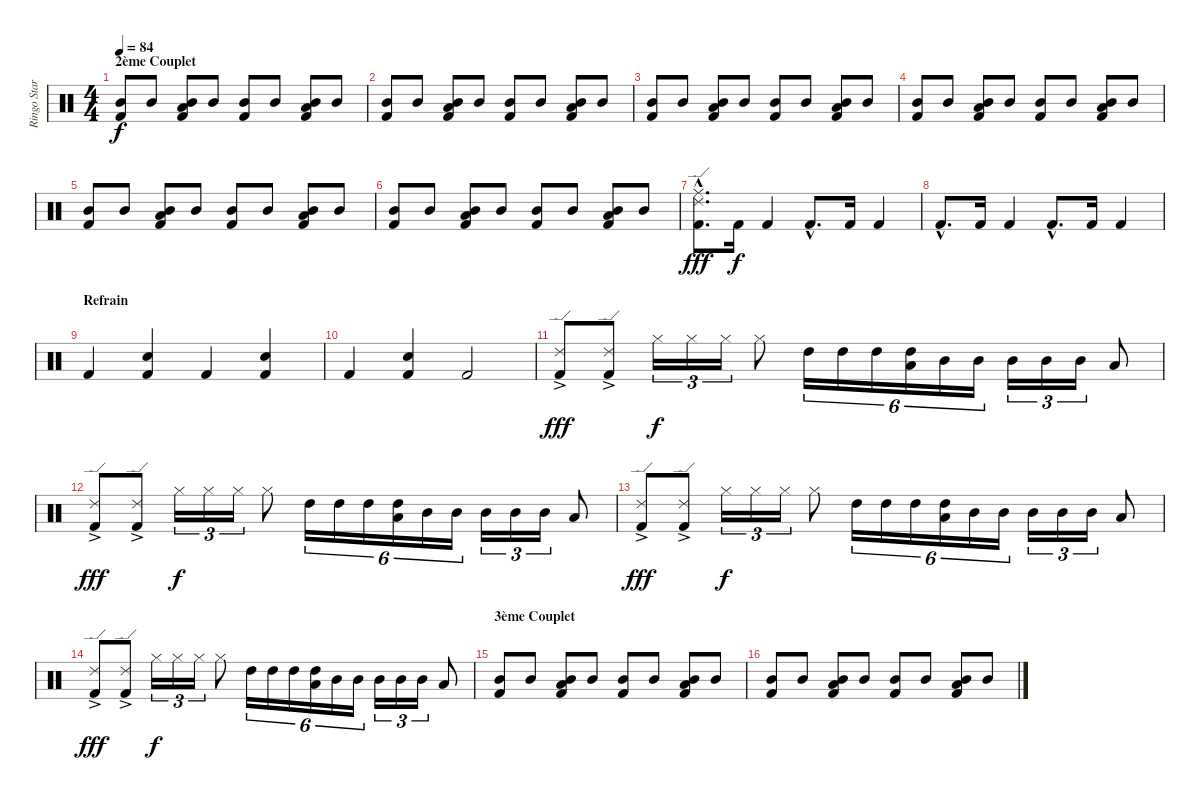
\track ("Ringo Starr (Batterie)" "Ringo Star") {instrument percussion}
\staff {score}
\articulation defaults
\ts (4 4)
\section ("" "2ème Couplet")
\tempo 84
\clef neutral
\ks c
("Mid Tom (hit)" "Kick (hit) 2").8{dy f} "Mid Tom (hit)".8 ("Mid Tom (hit)" "Low Tom (hit)" "Kick (hit) 2").8 "Mid Tom (hit)".8 ("Mid Tom (hit)" "Kick (hit) 2").8 "Mid Tom (hit)".8 ("Mid Tom (hit)" "Low Tom (hit)" "Kick (hit) 2").8 "Mid Tom (hit)".8 |
("Mid Tom (hit)" "Kick (hit) 2").8 "Mid Tom (hit)".8 ("Mid Tom (hit)" "Low Tom (hit)" "Kick (hit) 2").8 "Mid Tom (hit)".8 ("Mid Tom (hit)" "Kick (hit) 2").8 "Mid Tom (hit)".8 ("Mid Tom (hit)" "Low Tom (hit)" "Kick (hit) 2").8 "Mid Tom (hit)".8 |
("Mid Tom (hit)" "Kick (hit) 2").8 "Mid Tom (hit)".8 ("Mid Tom (hit)" "Low Tom (hit)" "Kick (hit) 2").8 "Mid Tom (hit)".8 ("Mid Tom (hit)" "Kick (hit) 2").8 "Mid Tom (hit)".8 ("Mid Tom (hit)" "Low Tom (hit)" "Kick (hit) 2").8 "Mid Tom (hit)".8 |
("Mid Tom (hit)" "Kick (hit) 2").8 "Mid Tom (hit)".8 ("Mid Tom (hit)" "Low Tom (hit)" "Kick (hit) 2").8 "Mid Tom (hit)".8 ("Mid Tom (hit)" "Kick (hit) 2").8 "Mid Tom (hit)".8 ("Mid Tom (hit)" "Low Tom (hit)" "Kick (hit) 2").8 "Mid Tom (hit)".8 |
("Mid Tom (hit)" "Kick (hit) 2").8 "Mid Tom (hit)".8 ("Mid Tom (hit)" "Low Tom (hit)" "Kick (hit) 2").8 "Mid Tom (hit)".8 ("Mid Tom (hit)" "Kick (hit) 2").8 "Mid Tom (hit)".8 ("Mid Tom (hit)" "Low Tom (hit)" "Kick (hit) 2").8 "Mid Tom (hit)".8 |
("Mid Tom (hit)" "Kick (hit) 2").8 "Mid Tom (hit)".8 ("Mid Tom (hit)" "Low Tom (hit)" "Kick (hit) 2").8 "Mid Tom (hit)".8 ("Mid Tom (hit)" "Kick (hit) 2").8 "Mid Tom (hit)".8 ("Mid Tom (hit)" "Low Tom (hit)" "Kick (hit) 2").8 "Mid Tom (hit)".8 |
("Ride (edge) 2"{hac} "Ride (middle)"{hac} "Kick (hit) 2"{hac}).8{d dy fff} "Kick (hit) 2".16{dy f} "Kick (hit) 2".4 "Kick (hit) 2"{hac}.8{d} "Kick (hit) 2".16 "Kick (hit) 2".4 |
"Kick (hit) 2"{hac}.8{d} "Kick (hit) 2".16 "Kick (hit) 2".4 "Kick (hit) 2"{hac}.8{d} "Kick (hit) 2".16 "Kick (hit) 2".4 |
\section ("" "Refrain")
"Kick (hit) 2".4 ("Snare (hit) 2" "Kick (hit) 2").4 "Kick (hit) 2".4 ("Snare (hit) 2" "Kick (hit) 2").4 |
"Kick (hit) 2".4 ("Snare (hit) 2" "Kick (hit) 2").4 "Kick (hit) 2".2 |
("Ride (edge) 2"{ac} "Kick (hit) 2").8{dy fff} ("Ride (edge) 2"{ac} "Kick (hit) 2").8 "Hi-Hat (closed)".16{tu (3 2) dy f} "Hi-Hat (closed)".16{tu (3 2)} "Hi-Hat (closed)".16{tu (3 2)} "Hi-Hat (closed)".8 "High Tom (hit)".16{tu (6 4)} "High Tom (hit)".16{tu (6 4)} "High Tom (hit)".16{tu (6 4)} ("High Tom (hit)" "Low Tom (hit)").16{tu (6 4)} "Mid Tom (hit)".16{tu (6 4)} "Mid Tom (hit)".16{tu (6 4)} "Mid Tom (hit)".16{tu (3 2)} "Mid Tom (hit)".16{tu (3 2)} "Mid Tom (hit)".16{tu (3 2)} "Low Tom (hit)".8 |
("Ride (edge) 2"{ac} "Kick (hit) 2").8{dy fff} ("Ride (edge) 2"{ac} "Kick (hit) 2").8 "Hi-Hat (closed)".16{tu (3 2) dy f} "Hi-Hat (closed)".16{tu (3 2)} "Hi-Hat (closed)".16{tu (3 2)} "Hi-Hat (closed)".8 "High Tom (hit)".16{tu (6 4)} "High Tom (hit)".16{tu (6 4)} "High Tom (hit)".16{tu (6 4)} ("High Tom (hit)" "Low Tom (hit)").16{tu (6 4)} "Mid Tom (hit)".16{tu (6 4)} "Mid Tom (hit)".16{tu (6 4)} "Mid Tom (hit)".16{tu (3 2)} "Mid Tom (hit)".16{tu (3 2)} "Mid Tom (hit)".16{tu (3 2)} "Low Tom (hit)".8 |
("Ride (edge) 2"{ac} "Kick (hit) 2").8{dy fff} ("Ride (edge) 2"{ac} "Kick (hit) 2").8 "Hi-Hat (closed)".16{tu (3 2) dy f} "Hi-Hat (closed)".16{tu (3 2)} "Hi-Hat (closed)".16{tu (3 2)} "Hi-Hat (closed)".8 "High Tom (hit)".16{tu (6 4)} "High Tom (hit)".16{tu (6 4)} "High Tom (hit)".16{tu (6 4)} ("High Tom (hit)" "Low Tom (hit)").16{tu (6 4)} "Mid Tom (hit)".16{tu (6 4)} "Mid Tom (hit)".16{tu (6 4)} "Mid Tom (hit)".16{tu (3 2)} "Mid Tom (hit)".16{tu (3 2)} "Mid Tom (hit)".16{tu (3 2)} "Low Tom (hit)".8 |
("Ride (edge) 2"{ac} "Kick (hit) 2").8{dy fff} ("Ride (edge) 2"{ac} "Kick (hit) 2").8 "Hi-Hat (closed)".16{tu (3 2) dy f} "Hi-Hat (closed)".16{tu (3 2)} "Hi-Hat (closed)".16{tu (3 2)} "Hi-Hat (closed)".8 "High Tom (hit)".16{tu (6 4)} "High Tom (hit)".16{tu (6 4)} "High Tom (hit)".16{tu (6 4)} ("High Tom (hit)" "Low Tom (hit)").16{tu (6 4)} "Mid Tom (hit)".16{tu (6 4)} "Mid Tom (hit)".16{tu (6 4)} "Mid Tom (hit)".16{tu (3 2)} "Mid Tom (hit)".16{tu (3 2)} "Mid Tom (hit)".16{tu (3 2)} "Low Tom (hit)".8 |
\section ("" "3ème Couplet")
("Mid Tom (hit)" "Kick (hit) 2").8 "Mid Tom (hit)".8 ("Mid Tom (hit)" "Low Tom (hit)" "Kick (hit) 2").8 "Mid Tom (hit)".8 ("Mid Tom (hit)" "Kick (hit) 2").8 "Mid Tom (hit)".8 ("Mid Tom (hit)" "Low Tom (hit)" "Kick (hit) 2").8 "Mid Tom (hit)".8 |
("Mid Tom (hit)" "Kick (hit) 2").8 "Mid Tom (hit)".8 ("Mid Tom (hit)" "Low Tom (hit)" "Kick (hit) 2").8 "Mid Tom (hit)".8 ("Mid Tom (hit)" "Kick (hit) 2").8 "Mid Tom (hit)".8 ("Mid Tom (hit)" "Low Tom (hit)" "Kick (hit) 2").8 "Mid Tom (hit)".8
